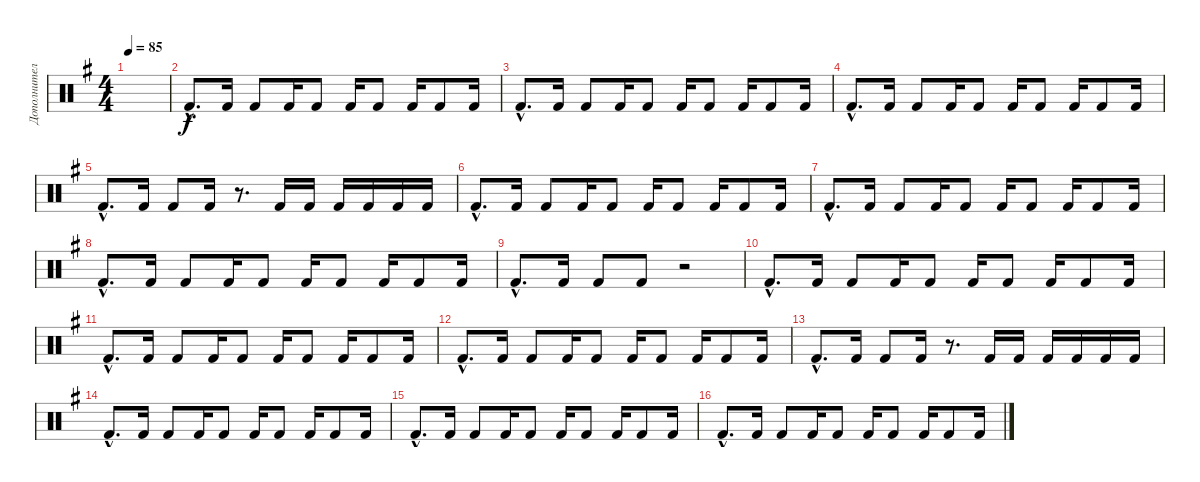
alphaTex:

\track ("Дополнительно" "Дополнител") {instrument percussion}
\staff {score}
\articulation defaults
\ts (4 4)
\tempo 85
\clef neutral
\ks eminor
|
"Kick (hit) 2"{hac}.8{d} "Kick (hit) 2".16 "Kick (hit) 2".8 "Kick (hit) 2".16 "Kick (hit) 2".8 "Kick (hit) 2".16 "Kick (hit) 2".8 "Kick (hit) 2".16 "Kick (hit) 2".8 "Kick (hit) 2".16 |
"Kick (hit) 2"{hac}.8{d} "Kick (hit) 2".16 "Kick (hit) 2".8 "Kick (hit) 2".16 "Kick (hit) 2".8 "Kick (hit) 2".16 "Kick (hit) 2".8 "Kick (hit) 2".16 "Kick (hit) 2".8 "Kick (hit) 2".16 |
"Kick (hit) 2"{hac}.8{d} "Kick (hit) 2".16 "Kick (hit) 2".8 "Kick (hit) 2".16 "Kick (hit) 2".8 "Kick (hit) 2".16 "Kick (hit) 2".8 "Kick (hit) 2".16 "Kick (hit) 2".8 "Kick (hit) 2".16 |
"Kick (hit) 2"{hac}.8{d} "Kick (hit) 2".16 "Kick (hit) 2".8 "Kick (hit) 2".16 r.8{d} "Kick (hit) 2".16 "Kick (hit) 2".16 "Kick (hit) 2".16 "Kick (hit) 2".16 "Kick (hit) 2".16 "Kick (hit) 2".16 |
"Kick (hit) 2"{hac}.8{d} "Kick (hit) 2".16 "Kick (hit) 2".8 "Kick (hit) 2".16 "Kick (hit) 2".8 "Kick (hit) 2".16 "Kick (hit) 2".8 "Kick (hit) 2".16 "Kick (hit) 2".8 "Kick (hit) 2".16 |
"Kick (hit) 2"{hac}.8{d} "Kick (hit) 2".16 "Kick (hit) 2".8 "Kick (hit) 2".16 "Kick (hit) 2".8 "Kick (hit) 2".16 "Kick (hit) 2".8 "Kick (hit) 2".16 "Kick (hit) 2".8 "Kick (hit) 2".16 |
"Kick (hit) 2"{hac}.8{d} "Kick (hit) 2".16 "Kick (hit) 2".8 "Kick (hit) 2".16 "Kick (hit) 2".8 "Kick (hit) 2".16 "Kick (hit) 2".8 "Kick (hit) 2".16 "Kick (hit) 2".8 "Kick (hit) 2".16 |
"Kick (hit) 2"{hac}.8{d} "Kick (hit) 2".16 "Kick (hit) 2".8 "Kick (hit) 2".8 r.2 |
"Kick (hit) 2"{hac}.8{d} "Kick (hit) 2".16 "Kick (hit) 2".8 "Kick (hit) 2".16 "Kick (hit) 2".8 "Kick (hit) 2".16 "Kick (hit) 2".8 "Kick (hit) 2".16 "Kick (hit) 2".8 "Kick (hit) 2".16 |
"Kick (hit) 2"{hac}.8{d} "Kick (hit) 2".16 "Kick (hit) 2".8 "Kick (hit) 2".16 "Kick (hit) 2".8 "Kick (hit) 2".16 "Kick (hit) 2".8 "Kick (hit) 2".16 "Kick (hit) 2".8 "Kick (hit) 2".16 |
"Kick (hit) 2"{hac}.8{d} "Kick (hit) 2".16 "Kick (hit) 2".8 "Kick (hit) 2".16 "Kick (hit) 2".8 "Kick (hit) 2".16 "Kick (hit) 2".8 "Kick (hit) 2".16 "Kick (hit) 2".8 "Kick (hit) 2".16 |
"Kick (hit) 2"{hac}.8{d} "Kick (hit) 2".16 "Kick (hit) 2".8 "Kick (hit) 2".16 r.8{d} "Kick (hit) 2".16 "Kick (hit) 2".16 "Kick (hit) 2".16 "Kick (hit) 2".16 "Kick (hit) 2".16 "Kick (hit) 2".16 |
"Kick (hit) 2"{hac}.8{d} "Kick (hit) 2".16 "Kick (hit) 2".8 "Kick (hit) 2".16 "Kick (hit) 2".8 "Kick (hit) 2".16 "Kick (hit) 2".8 "Kick (hit) 2".16 "Kick (hit) 2".8 "Kick (hit) 2".16 |
"Kick (hit) 2"{hac}.8{d} "Kick (hit) 2".16 "Kick (hit) 2".8 "Kick (hit) 2".16 "Kick (hit) 2".8 "Kick (hit) 2".16 "Kick (hit) 2".8 "Kick (hit) 2".16 "Kick (hit) 2".8 "Kick (hit) 2".16 |
"Kick (hit) 2"{hac}.8{d} "Kick (hit) 2".16 "Kick (hit) 2".8 "Kick (hit) 2".16 "Kick (hit) 2".8 "Kick (hit) 2".16 "Kick (hit) 2".8 "Kick (hit) 2".16 "Kick (hit) 2".8 "Kick (hit) 2".16
